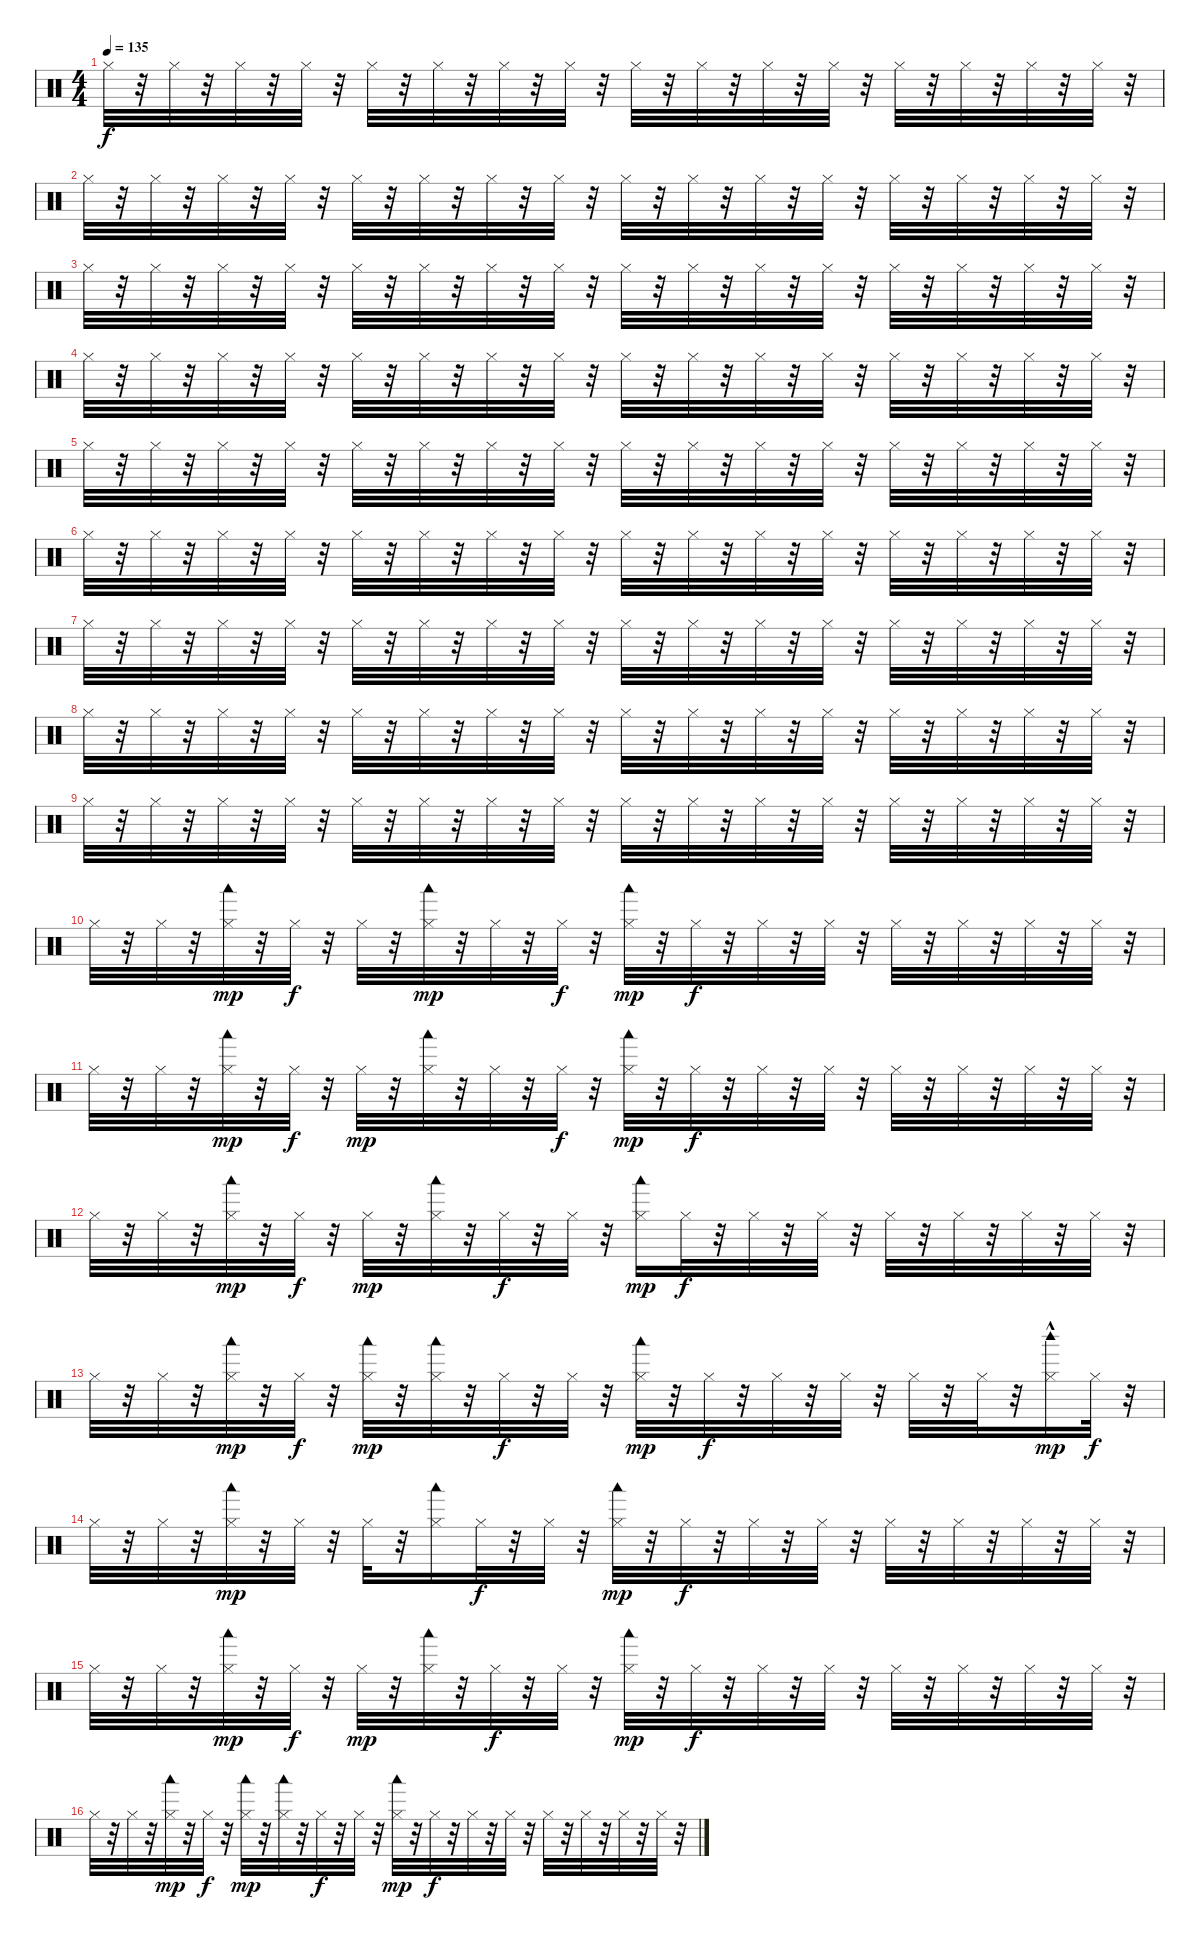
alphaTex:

\track "" {instrument percussion}
\staff {score}
\articulation defaults
\ts (4 4)
\tempo 135
\clef neutral
\ks c "Hi-Hat (closed)".32{dy f}
r.32 "Hi-Hat (closed)".32 r.32 "Hi-Hat (closed)".32 r.32 "Hi-Hat (closed)".32 r.32 "Hi-Hat (closed)".32 r.32 "Hi-Hat (closed)".32 r.32 "Hi-Hat (closed)".32 r.32 "Hi-Hat (closed)".32 r.32 "Hi-Hat (closed)".32 r.32 "Hi-Hat (closed)".32 r.32 "Hi-Hat (closed)".32 r.32 "Hi-Hat (closed)".32 r.32 "Hi-Hat (closed)".32 r.32 "Hi-Hat (closed)".32 r.32 "Hi-Hat (closed)".32 r.32 "Hi-Hat (closed)".32 r.32 |
"Hi-Hat (closed)".32 r.32 "Hi-Hat (closed)".32 r.32 "Hi-Hat (closed)".32 r.32 "Hi-Hat (closed)".32 r.32 "Hi-Hat (closed)".32 r.32 "Hi-Hat (closed)".32 r.32 "Hi-Hat (closed)".32 r.32 "Hi-Hat (closed)".32 r.32 "Hi-Hat (closed)".32 r.32 "Hi-Hat (closed)".32 r.32 "Hi-Hat (closed)".32 r.32 "Hi-Hat (closed)".32 r.32 "Hi-Hat (closed)".32 r.32 "Hi-Hat (closed)".32 r.32 "Hi-Hat (closed)".32 r.32 "Hi-Hat (closed)".32 r.32 |
"Hi-Hat (closed)".32 r.32 "Hi-Hat (closed)".32 r.32 "Hi-Hat (closed)".32 r.32 "Hi-Hat (closed)".32 r.32 "Hi-Hat (closed)".32 r.32 "Hi-Hat (closed)".32 r.32 "Hi-Hat (closed)".32 r.32 "Hi-Hat (closed)".32 r.32 "Hi-Hat (closed)".32 r.32 "Hi-Hat (closed)".32 r.32 "Hi-Hat (closed)".32 r.32 "Hi-Hat (closed)".32 r.32 "Hi-Hat (closed)".32 r.32 "Hi-Hat (closed)".32 r.32 "Hi-Hat (closed)".32 r.32 "Hi-Hat (closed)".32 r.32 |
"Hi-Hat (closed)".32 r.32 "Hi-Hat (closed)".32 r.32 "Hi-Hat (closed)".32 r.32 "Hi-Hat (closed)".32 r.32 "Hi-Hat (closed)".32 r.32 "Hi-Hat (closed)".32 r.32 "Hi-Hat (closed)".32 r.32 "Hi-Hat (closed)".32 r.32 "Hi-Hat (closed)".32 r.32 "Hi-Hat (closed)".32 r.32 "Hi-Hat (closed)".32 r.32 "Hi-Hat (closed)".32 r.32 "Hi-Hat (closed)".32 r.32 "Hi-Hat (closed)".32 r.32 "Hi-Hat (closed)".32 r.32 "Hi-Hat (closed)".32 r.32 |
"Hi-Hat (closed)".32 r.32 "Hi-Hat (closed)".32 r.32 "Hi-Hat (closed)".32 r.32 "Hi-Hat (closed)".32 r.32 "Hi-Hat (closed)".32 r.32 "Hi-Hat (closed)".32 r.32 "Hi-Hat (closed)".32 r.32 "Hi-Hat (closed)".32 r.32 "Hi-Hat (closed)".32 r.32 "Hi-Hat (closed)".32 r.32 "Hi-Hat (closed)".32 r.32 "Hi-Hat (closed)".32 r.32 "Hi-Hat (closed)".32 r.32 "Hi-Hat (closed)".32 r.32 "Hi-Hat (closed)".32 r.32 "Hi-Hat (closed)".32 r.32 |
"Hi-Hat (closed)".32 r.32 "Hi-Hat (closed)".32 r.32 "Hi-Hat (closed)".32 r.32 "Hi-Hat (closed)".32 r.32 "Hi-Hat (closed)".32 r.32 "Hi-Hat (closed)".32 r.32 "Hi-Hat (closed)".32 r.32 "Hi-Hat (closed)".32 r.32 "Hi-Hat (closed)".32 r.32 "Hi-Hat (closed)".32 r.32 "Hi-Hat (closed)".32 r.32 "Hi-Hat (closed)".32 r.32 "Hi-Hat (closed)".32 r.32 "Hi-Hat (closed)".32 r.32 "Hi-Hat (closed)".32 r.32 "Hi-Hat (closed)".32 r.32 |
"Hi-Hat (closed)".32 r.32 "Hi-Hat (closed)".32 r.32 "Hi-Hat (closed)".32 r.32 "Hi-Hat (closed)".32 r.32 "Hi-Hat (closed)".32 r.32 "Hi-Hat (closed)".32 r.32 "Hi-Hat (closed)".32 r.32 "Hi-Hat (closed)".32 r.32 "Hi-Hat (closed)".32 r.32 "Hi-Hat (closed)".32 r.32 "Hi-Hat (closed)".32 r.32 "Hi-Hat (closed)".32 r.32 "Hi-Hat (closed)".32 r.32 "Hi-Hat (closed)".32 r.32 "Hi-Hat (closed)".32 r.32 "Hi-Hat (closed)".32 r.32 |
"Hi-Hat (closed)".32 r.32 "Hi-Hat (closed)".32 r.32 "Hi-Hat (closed)".32 r.32 "Hi-Hat (closed)".32 r.32 "Hi-Hat (closed)".32 r.32 "Hi-Hat (closed)".32 r.32 "Hi-Hat (closed)".32 r.32 "Hi-Hat (closed)".32 r.32 "Hi-Hat (closed)".32 r.32 "Hi-Hat (closed)".32 r.32 "Hi-Hat (closed)".32 r.32 "Hi-Hat (closed)".32 r.32 "Hi-Hat (closed)".32 r.32 "Hi-Hat (closed)".32 r.32 "Hi-Hat (closed)".32 r.32 "Hi-Hat (closed)".32 r.32 |
"Hi-Hat (closed)".32 r.32 "Hi-Hat (closed)".32 r.32 "Hi-Hat (closed)".32 r.32 "Hi-Hat (closed)".32 r.32 "Hi-Hat (closed)".32 r.32 "Hi-Hat (closed)".32 r.32 "Hi-Hat (closed)".32 r.32 "Hi-Hat (closed)".32 r.32 "Hi-Hat (closed)".32 r.32 "Hi-Hat (closed)".32 r.32 "Hi-Hat (closed)".32 r.32 "Hi-Hat (closed)".32 r.32 "Hi-Hat (closed)".32 r.32 "Hi-Hat (closed)".32 r.32 "Hi-Hat (closed)".32 r.32 "Hi-Hat (closed)".32 r.32 |
"Hi-Hat (closed)".32 r.32 "Hi-Hat (closed)".32 r.32 ("Hi-Hat (closed)" "Woodblock low (hit)").32{dy mp} r.32 "Hi-Hat (closed)".32{dy f} r.32 "Hi-Hat (closed)".32 r.32 ("Woodblock low (hit)" "Hi-Hat (closed)").32{dy mp} r.32 "Hi-Hat (closed)".32 r.32 "Hi-Hat (closed)".32{dy f} r.32 ("Woodblock low (hit)" "Hi-Hat (closed)").32{dy mp} r.32 "Hi-Hat (closed)".32{dy f} r.32 "Hi-Hat (closed)".32 r.32 "Hi-Hat (closed)".32 r.32 "Hi-Hat (closed)".32 r.32 "Hi-Hat (closed)".32 r.32 "Hi-Hat (closed)".32 r.32 "Hi-Hat (closed)".32 r.32 |
"Hi-Hat (closed)".32 r.32 "Hi-Hat (closed)".32 r.32 ("Hi-Hat (closed)" "Woodblock low (hit)").32{dy mp} r.32 "Hi-Hat (closed)".32{dy f} r.32 "Hi-Hat (closed)".32{dy mp} r.32 ("Woodblock low (hit)" "Hi-Hat (closed)").32 r.32 "Hi-Hat (closed)".32 r.32 "Hi-Hat (closed)".32{dy f} r.32 ("Hi-Hat (closed)" "Woodblock low (hit)").32{dy mp} r.32 "Hi-Hat (closed)".32{dy f} r.32 "Hi-Hat (closed)".32 r.32 "Hi-Hat (closed)".32 r.32 "Hi-Hat (closed)".32 r.32 "Hi-Hat (closed)".32 r.32 "Hi-Hat (closed)".32 r.32 "Hi-Hat (closed)".32 r.32 |
"Hi-Hat (closed)".32 r.32 "Hi-Hat (closed)".32 r.32 ("Hi-Hat (closed)" "Woodblock low (hit)").32{dy mp} r.32 "Hi-Hat (closed)".32{dy f} r.32 "Hi-Hat (closed)".32{dy mp} r.32 ("Woodblock low (hit)" "Hi-Hat (closed)").32 r.32 "Hi-Hat (closed)".32{dy f} r.32 "Hi-Hat (closed)".32 r.32 ("Hi-Hat (closed)" "Woodblock low (hit)").16{dy mp} "Hi-Hat (closed)".32{dy f} r.32 "Hi-Hat (closed)".32 r.32 "Hi-Hat (closed)".32 r.32 "Hi-Hat (closed)".32 r.32 "Hi-Hat (closed)".32 r.32 "Hi-Hat (closed)".32 r.32 "Hi-Hat (closed)".32 r.32 |
"Hi-Hat (closed)".32 r.32 "Hi-Hat (closed)".32 r.32 ("Hi-Hat (closed)" "Woodblock low (hit)").32{dy mp} r.32 "Hi-Hat (closed)".32{dy f} r.32 ("Hi-Hat (closed)" "Woodblock low (hit)").32{dy mp} r.32 ("Hi-Hat (closed)" "Woodblock low (hit)").32 r.32 "Hi-Hat (closed)".32{dy f} r.32 "Hi-Hat (closed)".32 r.32 ("Hi-Hat (closed)" "Woodblock low (hit)").32{dy mp} r.32 "Hi-Hat (closed)".32{dy f} r.32 "Hi-Hat (closed)".32 r.32 "Hi-Hat (closed)".32 r.32 "Hi-Hat (closed)".32 r.32 "Hi-Hat (closed)".32 r.32 ("Hi-Hat (closed)" "Woodblock high (hit)"{hac}).16{dy mp} "Hi-Hat (closed)".32{dy f} r.32 |
"Hi-Hat (closed)".32 r.32 "Hi-Hat (closed)".32 r.32 ("Hi-Hat (closed)" "Woodblock low (hit)").32{dy mp} r.32 "Hi-Hat (closed)".32 r.32 "Hi-Hat (closed)".32 r.32 ("Woodblock low (hit)" "Hi-Hat (closed)").16 "Hi-Hat (closed)".32{dy f} r.32 "Hi-Hat (closed)".32 r.32 ("Hi-Hat (closed)" "Woodblock low (hit)").32{dy mp} r.32 "Hi-Hat (closed)".32{dy f} r.32 "Hi-Hat (closed)".32 r.32 "Hi-Hat (closed)".32 r.32 "Hi-Hat (closed)".32 r.32 "Hi-Hat (closed)".32 r.32 "Hi-Hat (closed)".32 r.32 "Hi-Hat (closed)".32 r.32 |
"Hi-Hat (closed)".32 r.32 "Hi-Hat (closed)".32 r.32 ("Hi-Hat (closed)" "Woodblock low (hit)").32{dy mp} r.32 "Hi-Hat (closed)".32{dy f} r.32 "Hi-Hat (closed)".32{dy mp} r.32 ("Hi-Hat (closed)" "Woodblock low (hit)").32 r.32 "Hi-Hat (closed)".32{dy f} r.32 "Hi-Hat (closed)".32 r.32 ("Hi-Hat (closed)" "Woodblock low (hit)").32{dy mp} r.32 "Hi-Hat (closed)".32{dy f} r.32 "Hi-Hat (closed)".32 r.32 "Hi-Hat (closed)".32 r.32 "Hi-Hat (closed)".32 r.32 "Hi-Hat (closed)".32 r.32 "Hi-Hat (closed)".32 r.32 "Hi-Hat (closed)".32 r.32 |
"Hi-Hat (closed)".32 r.32 "Hi-Hat (closed)".32 r.32 ("Hi-Hat (closed)" "Woodblock low (hit)").32{dy mp} r.32 "Hi-Hat (closed)".32{dy f} r.32 ("Hi-Hat (closed)" "Woodblock low (hit)").32{dy mp} r.32 ("Hi-Hat (closed)" "Woodblock low (hit)").32 r.32 "Hi-Hat (closed)".32{dy f} r.32 "Hi-Hat (closed)".32 r.32 ("Hi-Hat (closed)" "Woodblock low (hit)").32{dy mp} r.32 "Hi-Hat (closed)".32{dy f} r.32 "Hi-Hat (closed)".32 r.32 "Hi-Hat (closed)".32 r.32 "Hi-Hat (closed)".32 r.32 "Hi-Hat (closed)".32 r.32 "Hi-Hat (closed)".32 r.32 "Hi-Hat (closed)".32 r.32
